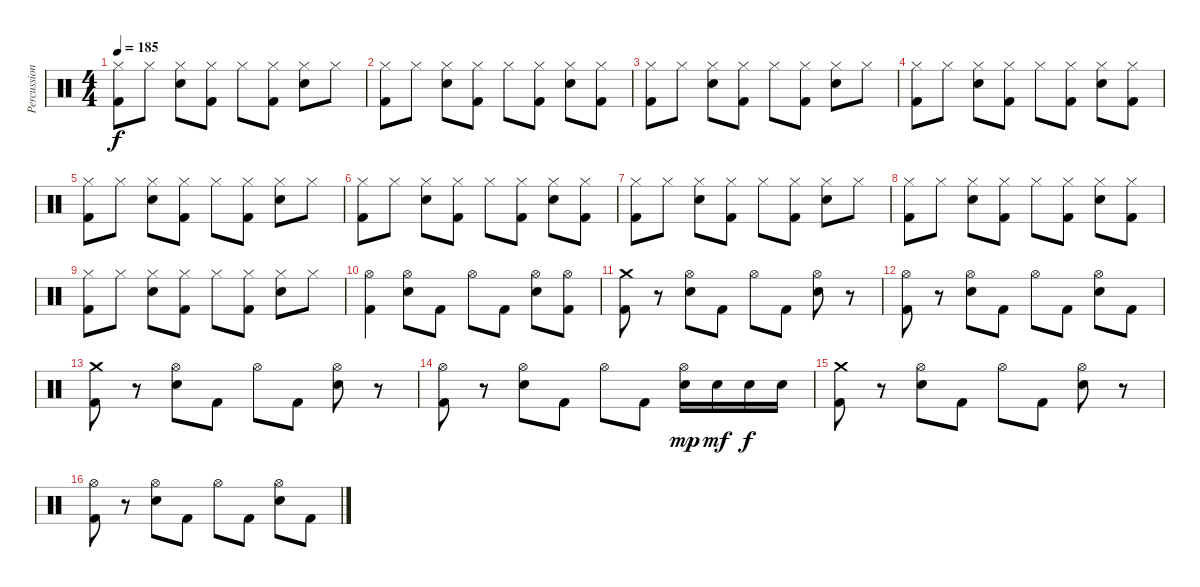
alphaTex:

\track ("Percussions" "Percussion") {instrument percussion}
\staff {score}
\articulation defaults
\ts (4 4)
\tempo 185
\clef neutral
\ks c
("Hi-Hat (closed)" "Kick (hit) 2").8{dy f} "Hi-Hat (closed)".8 ("Hi-Hat (closed)" "Electric Snare (hit)").8 ("Hi-Hat (closed)" "Kick (hit) 2").8 "Hi-Hat (closed)".8 ("Hi-Hat (closed)" "Kick (hit) 2").8 ("Hi-Hat (closed)" "Electric Snare (hit)").8 "Hi-Hat (closed)".8 |
("Hi-Hat (closed)" "Kick (hit) 2").8 "Hi-Hat (closed)".8 ("Hi-Hat (closed)" "Electric Snare (hit)").8 ("Hi-Hat (closed)" "Kick (hit) 2").8 "Hi-Hat (closed)".8 ("Hi-Hat (closed)" "Kick (hit) 2").8 ("Hi-Hat (closed)" "Electric Snare (hit)").8 ("Hi-Hat (closed)" "Kick (hit) 2").8 |
("Hi-Hat (closed)" "Kick (hit) 2").8 "Hi-Hat (closed)".8 ("Hi-Hat (closed)" "Electric Snare (hit)").8 ("Hi-Hat (closed)" "Kick (hit) 2").8 "Hi-Hat (closed)".8 ("Hi-Hat (closed)" "Kick (hit) 2").8 ("Hi-Hat (closed)" "Electric Snare (hit)").8 "Hi-Hat (closed)".8 |
("Hi-Hat (closed)" "Kick (hit) 2").8 "Hi-Hat (closed)".8 ("Hi-Hat (closed)" "Electric Snare (hit)").8 ("Hi-Hat (closed)" "Kick (hit) 2").8 "Hi-Hat (closed)".8 ("Hi-Hat (closed)" "Kick (hit) 2").8 ("Hi-Hat (closed)" "Electric Snare (hit)").8 ("Hi-Hat (closed)" "Kick (hit) 2").8 |
("Hi-Hat (closed)" "Kick (hit) 2").8 "Hi-Hat (closed)".8 ("Hi-Hat (closed)" "Electric Snare (hit)").8 ("Hi-Hat (closed)" "Kick (hit) 2").8 "Hi-Hat (closed)".8 ("Hi-Hat (closed)" "Kick (hit) 2").8 ("Hi-Hat (closed)" "Electric Snare (hit)").8 "Hi-Hat (closed)".8 |
("Hi-Hat (closed)" "Kick (hit) 2").8 "Hi-Hat (closed)".8 ("Hi-Hat (closed)" "Electric Snare (hit)").8 ("Hi-Hat (closed)" "Kick (hit) 2").8 "Hi-Hat (closed)".8 ("Hi-Hat (closed)" "Kick (hit) 2").8 ("Hi-Hat (closed)" "Electric Snare (hit)").8 ("Hi-Hat (closed)" "Kick (hit) 2").8 |
("Hi-Hat (closed)" "Kick (hit) 2").8 "Hi-Hat (closed)".8 ("Hi-Hat (closed)" "Electric Snare (hit)").8 ("Hi-Hat (closed)" "Kick (hit) 2").8 "Hi-Hat (closed)".8 ("Hi-Hat (closed)" "Kick (hit) 2").8 ("Hi-Hat (closed)" "Electric Snare (hit)").8 "Hi-Hat (closed)".8 |
("Hi-Hat (closed)" "Kick (hit) 2").8 "Hi-Hat (closed)".8 ("Hi-Hat (closed)" "Electric Snare (hit)").8 ("Hi-Hat (closed)" "Kick (hit) 2").8 "Hi-Hat (closed)".8 ("Hi-Hat (closed)" "Kick (hit) 2").8 ("Hi-Hat (closed)" "Electric Snare (hit)").8 ("Hi-Hat (closed)" "Kick (hit) 2").8 |
("Hi-Hat (closed)" "Kick (hit) 2").8 "Hi-Hat (closed)".8 ("Hi-Hat (closed)" "Electric Snare (hit)").8 ("Hi-Hat (closed)" "Kick (hit) 2").8 "Hi-Hat (closed)".8 ("Hi-Hat (closed)" "Kick (hit) 2").8 ("Hi-Hat (closed)" "Electric Snare (hit)").8 "Hi-Hat (closed)".8 |
("Hi-Hat (open)" "Kick (hit) 2").4 ("Hi-Hat (open)" "Electric Snare (hit)").8 "Kick (hit) 2".8 "Hi-Hat (open)".8 "Kick (hit) 2".8 ("Hi-Hat (open)" "Electric Snare (hit)").8 ("Hi-Hat (open)" "Kick (hit) 2").8 |
("Crash medium (hit)" "Kick (hit) 2").8 r.8 ("Hi-Hat (open)" "Electric Snare (hit)").8 "Kick (hit) 2".8 "Hi-Hat (open)".8 "Kick (hit) 2".8 ("Hi-Hat (open)" "Electric Snare (hit)").8 r.8 |
("Hi-Hat (open)" "Kick (hit) 2").8 r.8 ("Hi-Hat (open)" "Electric Snare (hit)").8 "Kick (hit) 2".8 "Hi-Hat (open)".8 "Kick (hit) 2".8 ("Hi-Hat (open)" "Electric Snare (hit)").8 "Kick (hit) 2".8 |
("Crash medium (hit)" "Kick (hit) 2").8 r.8 ("Hi-Hat (open)" "Electric Snare (hit)").8 "Kick (hit) 2".8 "Hi-Hat (open)".8 "Kick (hit) 2".8 ("Hi-Hat (open)" "Electric Snare (hit)").8 r.8 |
("Hi-Hat (open)" "Kick (hit) 2").8 r.8 ("Hi-Hat (open)" "Electric Snare (hit)").8 "Kick (hit) 2".8 "Hi-Hat (open)".8 "Kick (hit) 2".8 ("Hi-Hat (open)" "Electric Snare (hit)").16{dy mp} "Electric Snare (hit)".16{dy mf} "Electric Snare (hit)".16{dy f} "Electric Snare (hit)".16 |
("Crash medium (hit)" "Kick (hit) 2").8 r.8 ("Hi-Hat (open)" "Electric Snare (hit)").8 "Kick (hit) 2".8 "Hi-Hat (open)".8 "Kick (hit) 2".8 ("Hi-Hat (open)" "Electric Snare (hit)").8 r.8 |
("Hi-Hat (open)" "Kick (hit) 2").8 r.8 ("Hi-Hat (open)" "Electric Snare (hit)").8 "Kick (hit) 2".8 "Hi-Hat (open)".8 "Kick (hit) 2".8 ("Hi-Hat (open)" "Electric Snare (hit)").8 "Kick (hit) 2".8
